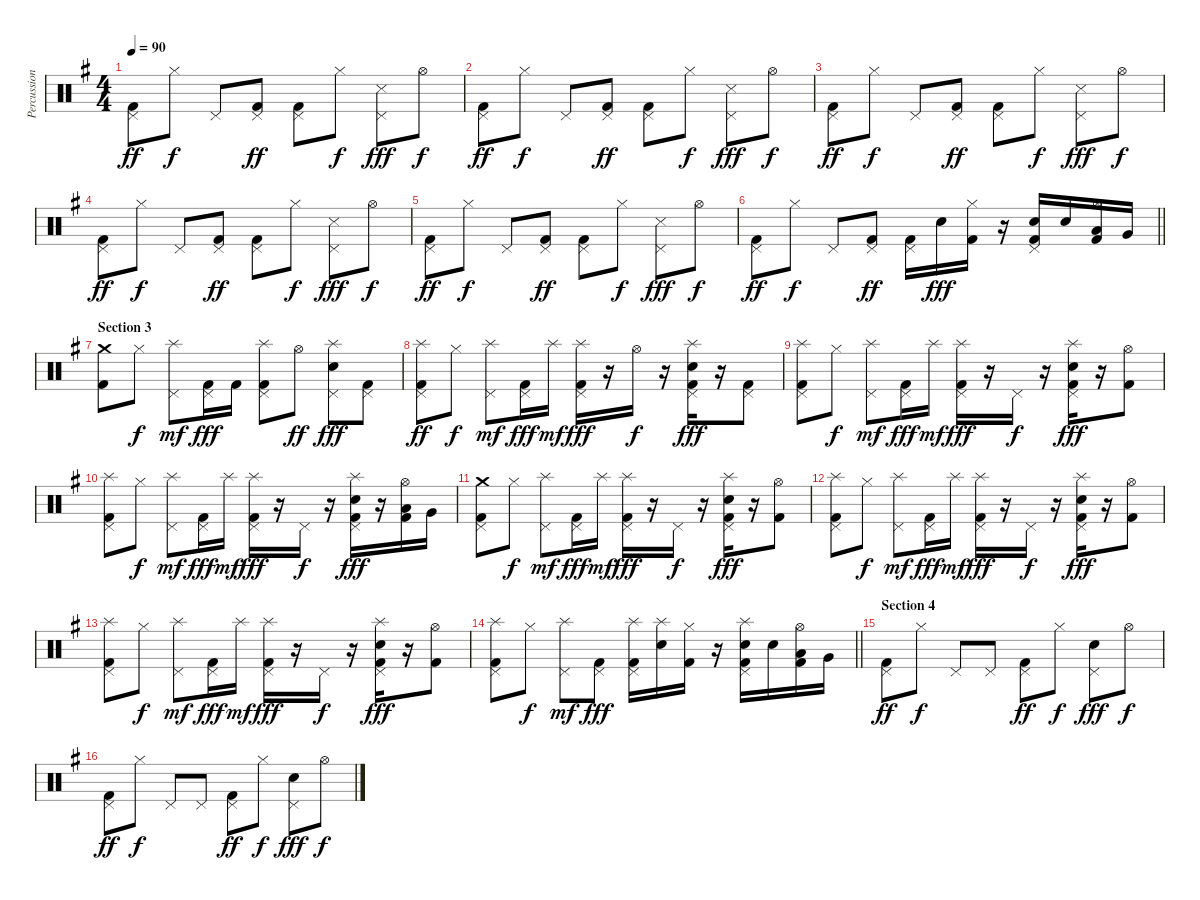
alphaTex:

\track ("Percussion" "Percussion") {instrument percussion}
\staff {score}
\articulation defaults
\ts (4 4)
\tempo 90
\clef neutral
\ks g
("Pedal Hi-Hat (hit)" "Kick (hit) 2").8{dy ff} "Hi-Hat (closed)".8{dy f} "Pedal Hi-Hat (hit)".8 ("Pedal Hi-Hat (hit)" "Kick (hit) 2").8{dy ff} ("Pedal Hi-Hat (hit)" "Kick (hit) 2").8 "Hi-Hat (closed)".8{dy f} ("Pedal Hi-Hat (hit)" "Snare (side stick) 3").8{dy fff} "Hi-Hat (open)".8{dy f} |
("Pedal Hi-Hat (hit)" "Kick (hit) 2").8{dy ff} "Hi-Hat (closed)".8{dy f} "Pedal Hi-Hat (hit)".8 ("Pedal Hi-Hat (hit)" "Kick (hit) 2").8{dy ff} ("Pedal Hi-Hat (hit)" "Kick (hit) 2").8 "Hi-Hat (closed)".8{dy f} ("Pedal Hi-Hat (hit)" "Snare (side stick) 3").8{dy fff} "Hi-Hat (open)".8{dy f} |
("Pedal Hi-Hat (hit)" "Kick (hit) 2").8{dy ff} "Hi-Hat (closed)".8{dy f} "Pedal Hi-Hat (hit)".8 ("Pedal Hi-Hat (hit)" "Kick (hit) 2").8{dy ff} ("Pedal Hi-Hat (hit)" "Kick (hit) 2").8 "Hi-Hat (closed)".8{dy f} ("Pedal Hi-Hat (hit)" "Snare (side stick) 3").8{dy fff} "Hi-Hat (open)".8{dy f} |
("Pedal Hi-Hat (hit)" "Kick (hit) 2").8{dy ff} "Hi-Hat (closed)".8{dy f} "Pedal Hi-Hat (hit)".8 ("Pedal Hi-Hat (hit)" "Kick (hit) 2").8{dy ff} ("Pedal Hi-Hat (hit)" "Kick (hit) 2").8 "Hi-Hat (closed)".8{dy f} ("Pedal Hi-Hat (hit)" "Snare (side stick) 3").8{dy fff} "Hi-Hat (open)".8{dy f} |
("Pedal Hi-Hat (hit)" "Kick (hit) 2").8{dy ff} "Hi-Hat (closed)".8{dy f} "Pedal Hi-Hat (hit)".8 ("Pedal Hi-Hat (hit)" "Kick (hit) 2").8{dy ff} ("Pedal Hi-Hat (hit)" "Kick (hit) 2").8 "Hi-Hat (closed)".8{dy f} ("Pedal Hi-Hat (hit)" "Snare (side stick) 3").8{dy fff} "Hi-Hat (open)".8{dy f} |
\barLineRight lightlight
("Pedal Hi-Hat (hit)" "Kick (hit) 2").8{dy ff} "Hi-Hat (closed)".8{dy f} "Pedal Hi-Hat (hit)".8 ("Pedal Hi-Hat (hit)" "Kick (hit) 2").8{dy ff} ("Pedal Hi-Hat (hit)" "Kick (hit) 2").16 "Snare (hit) 2".16{dy fff} ("Hi-Hat (closed)" "Kick (hit) 2").16 r.16 ("Pedal Hi-Hat (hit)" "Snare (hit) 2" "Kick (hit) 2").16 "Snare (hit) 2".16 ("Hi-Hat (open)" "Low Tom (hit)" "Kick (hit) 2").16 "Very Low Tom (hit)".16 |
\section ("" "Section 3")
("Crash medium (hit)" "Kick (hit) 2").8{volume 11} "Hi-Hat (closed)".8{dy f} ("Splash (hit)" "Pedal Hi-Hat (hit)").8{dy mf} ("Pedal Hi-Hat (hit)" "Kick (hit) 2").16{dy fff} "Kick (hit) 2".16 ("Splash (hit)" "Pedal Hi-Hat (hit)" "Kick (hit) 2").8 "Hi-Hat (open)".8{dy ff} ("Splash (hit)" "Pedal Hi-Hat (hit)" "Snare (hit) 2").8{dy fff} ("Pedal Hi-Hat (hit)" "Kick (hit) 2").8 |
("Splash (hit)" "Pedal Hi-Hat (hit)" "Kick (hit) 2").8{dy ff} "Hi-Hat (closed)".8{dy f} ("Splash (hit)" "Pedal Hi-Hat (hit)").8{dy mf} ("Pedal Hi-Hat (hit)" "Kick (hit) 2").16{dy fff} "Splash (hit)".16{dy mf} ("Splash (hit)" "Pedal Hi-Hat (hit)" "Kick (hit) 2").16{dy fff} r.16 "Hi-Hat (open)".16{dy f} r.16 ("Splash (hit)" "Pedal Hi-Hat (hit)" "Snare (hit) 2" "Kick (hit) 2").16{dy fff} r.16 ("Pedal Hi-Hat (hit)" "Kick (hit) 2").8 |
("Splash (hit)" "Pedal Hi-Hat (hit)" "Kick (hit) 2").8 "Hi-Hat (closed)".8{dy f} ("Splash (hit)" "Pedal Hi-Hat (hit)").8{dy mf} ("Pedal Hi-Hat (hit)" "Kick (hit) 2").16{dy fff} "Splash (hit)".16{dy mf} ("Splash (hit)" "Pedal Hi-Hat (hit)" "Kick (hit) 2").16{dy fff} r.16 "Pedal Hi-Hat (hit)".16{dy f} r.16 ("Splash (hit)" "Pedal Hi-Hat (hit)" "Snare (hit) 2" "Kick (hit) 2").16{dy fff} r.16 ("Hi-Hat (open)" "Kick (hit) 2").8 |
("Splash (hit)" "Pedal Hi-Hat (hit)" "Kick (hit) 2").8 "Hi-Hat (closed)".8{dy f} ("Splash (hit)" "Pedal Hi-Hat (hit)").8{dy mf} ("Pedal Hi-Hat (hit)" "Kick (hit) 2").16{dy fff} "Splash (hit)".16{dy mf} ("Splash (hit)" "Pedal Hi-Hat (hit)" "Kick (hit) 2").16{dy fff} r.16 "Pedal Hi-Hat (hit)".16{dy f} r.16 ("Splash (hit)" "Pedal Hi-Hat (hit)" "Snare (hit) 2" "Kick (hit) 2").16{dy fff} r.16 ("Hi-Hat (open)" "Low Tom (hit)" "Kick (hit) 2").16 "Very Low Tom (hit)".16 |
("Crash medium (hit)" "Pedal Hi-Hat (hit)" "Kick (hit) 2").8 "Hi-Hat (closed)".8{dy f} ("Splash (hit)" "Pedal Hi-Hat (hit)").8{dy mf} ("Pedal Hi-Hat (hit)" "Kick (hit) 2").16{dy fff} "Splash (hit)".16{dy mf} ("Splash (hit)" "Pedal Hi-Hat (hit)" "Kick (hit) 2").16{dy fff} r.16 "Pedal Hi-Hat (hit)".16{dy f} r.16 ("Splash (hit)" "Pedal Hi-Hat (hit)" "Snare (hit) 2" "Kick (hit) 2").16{dy fff} r.16 ("Hi-Hat (open)" "Kick (hit) 2").8 |
("Splash (hit)" "Pedal Hi-Hat (hit)" "Kick (hit) 2").8 "Hi-Hat (closed)".8{dy f} ("Splash (hit)" "Pedal Hi-Hat (hit)").8{dy mf} ("Pedal Hi-Hat (hit)" "Kick (hit) 2").16{dy fff} "Splash (hit)".16{dy mf} ("Splash (hit)" "Pedal Hi-Hat (hit)" "Kick (hit) 2").16{dy fff} r.16 "Pedal Hi-Hat (hit)".16{dy f} r.16 ("Splash (hit)" "Pedal Hi-Hat (hit)" "Snare (hit) 2" "Kick (hit) 2").16{dy fff} r.16 ("Hi-Hat (open)" "Kick (hit) 2").8 |
("Splash (hit)" "Pedal Hi-Hat (hit)" "Kick (hit) 2").8 "Hi-Hat (closed)".8{dy f} ("Splash (hit)" "Pedal Hi-Hat (hit)").8{dy mf} ("Pedal Hi-Hat (hit)" "Kick (hit) 2").16{dy fff} "Splash (hit)".16{dy mf} ("Splash (hit)" "Pedal Hi-Hat (hit)" "Kick (hit) 2").16{dy fff} r.16 "Pedal Hi-Hat (hit)".16{dy f} r.16 ("Splash (hit)" "Pedal Hi-Hat (hit)" "Snare (hit) 2" "Kick (hit) 2").16{dy fff} r.16 ("Hi-Hat (open)" "Kick (hit) 2").8 |
\barLineRight lightlight
("Splash (hit)" "Pedal Hi-Hat (hit)" "Kick (hit) 2").8 "Hi-Hat (closed)".8{dy f} ("Splash (hit)" "Pedal Hi-Hat (hit)").8{dy mf} ("Pedal Hi-Hat (hit)" "Kick (hit) 2").8{dy fff} ("Splash (hit)" "Pedal Hi-Hat (hit)" "Kick (hit) 2").16 ("Splash (hit)" "Snare (hit) 2").16 ("Hi-Hat (closed)" "Kick (hit) 2").16 r.16 ("Splash (hit)" "Pedal Hi-Hat (hit)" "Snare (hit) 2" "Kick (hit) 2").16 "Snare (hit) 2".16 ("Hi-Hat (open)" "Low Tom (hit)" "Kick (hit) 2").16 "Very Low Tom (hit)".16 |
\section ("" "Section 4")
("Pedal Hi-Hat (hit)" "Kick (hit) 2").8{dy ff} "Hi-Hat (closed)".8{dy f} "Pedal Hi-Hat (hit)".8 "Pedal Hi-Hat (hit)".8 ("Pedal Hi-Hat (hit)" "Kick (hit) 2").8{dy ff} "Hi-Hat (closed)".8{dy f} ("Pedal Hi-Hat (hit)" "Snare (hit) 2").8{dy fff} "Hi-Hat (open)".8{dy f} |
("Pedal Hi-Hat (hit)" "Kick (hit) 2").8{dy ff} "Hi-Hat (closed)".8{dy f} "Pedal Hi-Hat (hit)".8 "Pedal Hi-Hat (hit)".8 ("Pedal Hi-Hat (hit)" "Kick (hit) 2").8{dy ff} "Hi-Hat (closed)".8{dy f} ("Pedal Hi-Hat (hit)" "Snare (hit) 2").8{dy fff} "Hi-Hat (open)".8{dy f}
